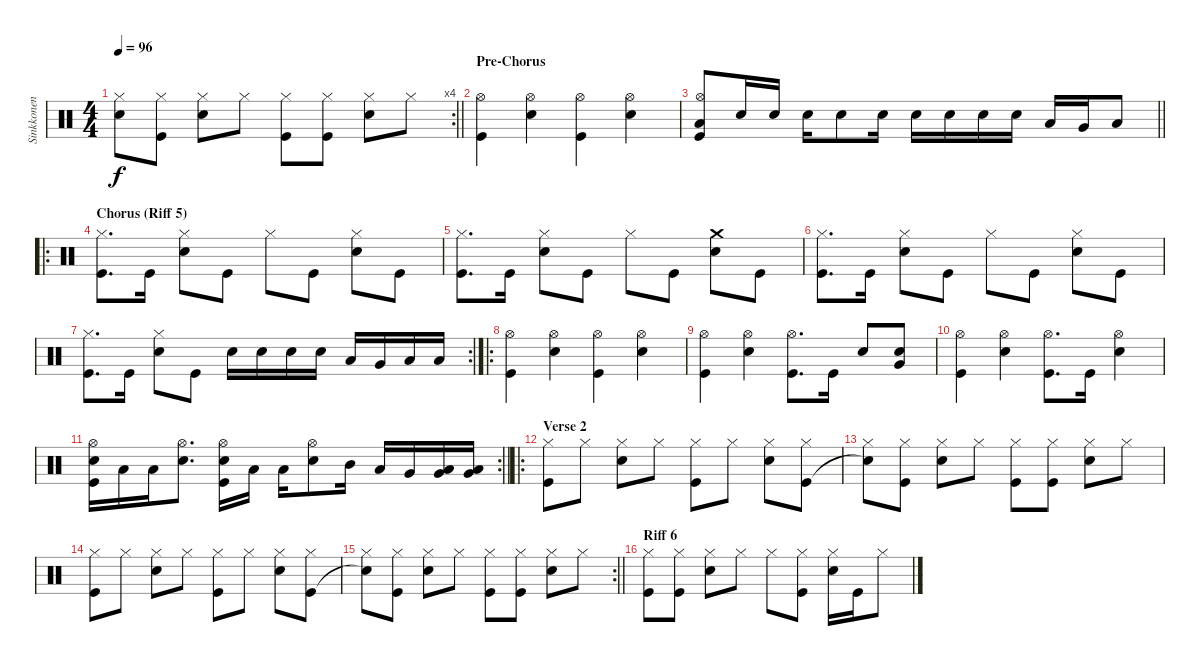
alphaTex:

\track ("Sinkkonen" "Sinkkonen") {instrument percussion}
\staff {score}
\articulation defaults
\rc 4
\ts (4 4)
\tempo 96
\clef neutral
\barLineRight lightlight
\ks c
("Snare (hit)"{t} "Hi-Hat (closed)").8{dy f} ("Kick (hit)" "Hi-Hat (closed)").8 ("Electric Snare (hit)" "Hi-Hat (closed)").8 "Hi-Hat (closed)".8 ("Kick (hit)" "Hi-Hat (closed)").8 ("Kick (hit)" "Hi-Hat (closed)").8 ("Electric Snare (hit)" "Hi-Hat (closed)").8 "Hi-Hat (closed)".8 |
\section ("" "Pre-Chorus")
("Kick (hit)" "Hi-Hat (open)").4 ("Electric Snare (hit)" "Hi-Hat (open)").4 ("Kick (hit)" "Hi-Hat (open)").4 ("Electric Snare (hit)" "Hi-Hat (open)").4 |
\barLineRight lightlight
("Kick (hit)" "Low Floor Tom (hit)" "Hi-Hat (open)").8 "Electric Snare (hit)".16 "Electric Snare (hit)".16 "Electric Snare (hit)".16 "Electric Snare (hit)".8 "Electric Snare (hit)".16 "Electric Snare (hit)".16 "Electric Snare (hit)".16 "Electric Snare (hit)".16 "Electric Snare (hit)".16 "Low Tom (hit)".16 "Very Low Tom (hit)".16 "Low Floor Tom (hit)".8 |
\ro
\section ("" "Chorus (Riff 5)")
("Kick (hit)" "Hi-Hat (closed)").8{d} "Kick (hit)".16 ("Electric Snare (hit)" "Hi-Hat (closed)").8 "Kick (hit)".8 "Hi-Hat (closed)".8 "Kick (hit)".8 ("Electric Snare (hit)" "Hi-Hat (closed)").8 "Kick (hit)".8 |
("Kick (hit)" "Hi-Hat (closed)").8{d} "Kick (hit)".16 ("Electric Snare (hit)" "Hi-Hat (closed)").8 "Kick (hit)".8 "Hi-Hat (closed)".8 "Kick (hit)".8 ("Electric Snare (hit)" "Crash medium (hit)").8 "Kick (hit)".8 |
("Kick (hit)" "Hi-Hat (closed)").8{d} "Kick (hit)".16 ("Electric Snare (hit)" "Hi-Hat (closed)").8 "Kick (hit)".8 "Hi-Hat (closed)".8 "Kick (hit)".8 ("Electric Snare (hit)" "Hi-Hat (closed)").8 "Kick (hit)".8 |
\rc 2
("Kick (hit)" "Hi-Hat (closed)").8{d} "Kick (hit)".16 ("Electric Snare (hit)" "Hi-Hat (closed)").8 "Kick (hit)".8 "Electric Snare (hit)".16 "Electric Snare (hit)".16 "Electric Snare (hit)".16 "Electric Snare (hit)".16 "Low Tom (hit)".16 "Very Low Tom (hit)".16 "Low Floor Tom (hit)".16 "Low Floor Tom (hit)".16 |
\ro
("Kick (hit)" "Hi-Hat (open)").4 ("Electric Snare (hit)" "Hi-Hat (open)").4 ("Kick (hit)" "Hi-Hat (open)").4 ("Electric Snare (hit)" "Hi-Hat (open)").4 |
("Kick (hit)" "Hi-Hat (open)").4 ("Electric Snare (hit)" "Hi-Hat (open)").4 ("Kick (hit)" "Hi-Hat (open)").8{d} "Kick (hit)".16 "Electric Snare (hit)".8 ("Very Low Tom (hit)" "Electric Snare (hit)").8 |
("Kick (hit)" "Hi-Hat (open)").4 ("Electric Snare (hit)" "Hi-Hat (open)").4 ("Kick (hit)" "Hi-Hat (open)").8{d} "Kick (hit)".16 ("Electric Snare (hit)" "Hi-Hat (open)").4 |
\rc 2
\barLineRight lightlight
("Kick (hit)" "Electric Snare (hit)" "Hi-Hat (open)").16 "Low Floor Tom (hit)".16 "Low Floor Tom (hit)".16 ("Electric Snare (hit)" "Hi-Hat (open)").8{d} ("Kick (hit)" "Electric Snare (hit)" "Hi-Hat (open)").16 "Low Floor Tom (hit)".16 "Low Floor Tom (hit)".16 ("Electric Snare (hit)" "Hi-Hat (open)").8 "Mid Tom (hit)".16 "Low Tom (hit)".16 "Very Low Tom (hit)".16 ("Low Floor Tom (hit)" "Very Low Tom (hit)").16 ("Low Floor Tom (hit)" "Very Low Tom (hit)").16 |
\ro
\section ("" "Verse 2")
("Kick (hit)" "Hi-Hat (closed)").8 "Hi-Hat (closed)".8 ("Electric Snare (hit)" "Hi-Hat (closed)").8 "Hi-Hat (closed)".8 ("Kick (hit)" "Hi-Hat (closed)").8 "Hi-Hat (closed)".8 ("Electric Snare (hit)" "Hi-Hat (closed)").8 ("Kick (hit)" "Hi-Hat (closed)").8 |
("Snare (hit)"{t} "Hi-Hat (closed)").8 ("Kick (hit)" "Hi-Hat (closed)").8 ("Electric Snare (hit)" "Hi-Hat (closed)").8 "Hi-Hat (closed)".8 ("Kick (hit)" "Hi-Hat (closed)").8 ("Kick (hit)" "Hi-Hat (closed)").8 ("Electric Snare (hit)" "Hi-Hat (closed)").8 "Hi-Hat (closed)".8 |
("Kick (hit)" "Hi-Hat (closed)").8 "Hi-Hat (closed)".8 ("Electric Snare (hit)" "Hi-Hat (closed)").8 "Hi-Hat (closed)".8 ("Kick (hit)" "Hi-Hat (closed)").8 "Hi-Hat (closed)".8 ("Electric Snare (hit)" "Hi-Hat (closed)").8 ("Kick (hit)" "Hi-Hat (closed)").8 |
\rc 2
\barLineRight lightlight
("Snare (hit)"{t} "Hi-Hat (closed)").8 ("Kick (hit)" "Hi-Hat (closed)").8 ("Electric Snare (hit)" "Hi-Hat (closed)").8 "Hi-Hat (closed)".8 ("Kick (hit)" "Hi-Hat (closed)").8 ("Kick (hit)" "Hi-Hat (closed)").8 ("Electric Snare (hit)" "Hi-Hat (closed)").8 "Hi-Hat (closed)".8 |
\section ("" "Riff 6")
("Kick (hit)" "Hi-Hat (closed)").8 ("Kick (hit)" "Hi-Hat (closed)").8 ("Electric Snare (hit)" "Hi-Hat (closed)").8 "Hi-Hat (closed)".8 "Hi-Hat (closed)".8 ("Kick (hit)" "Hi-Hat (closed)").8 ("Electric Snare (hit)" "Hi-Hat (closed)").16 "Kick (hit)".16 "Hi-Hat (closed)".8
